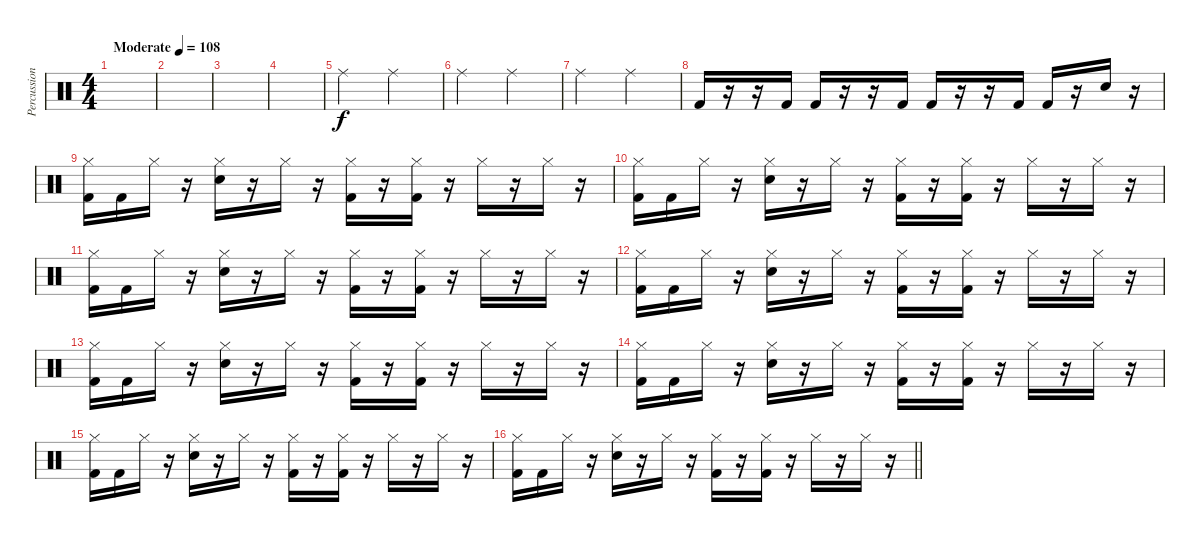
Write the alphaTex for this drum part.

\track ("Percussion" "Percussion") {instrument percussion}
\staff {score}
\articulation defaults
\ts (4 4)
\tempo (108 "Moderate")
\clef neutral
\ks c
|
|
|
|
"Ride (middle)".2 "Ride (middle)".2 |
"Ride (middle)".2 "Ride (middle)".2 |
"Ride (middle)".2 "Ride (middle)".2 |
"Kick (hit) 2".16 r.16 r.16 "Kick (hit) 2".16 "Kick (hit) 2".16 r.16 r.16 "Kick (hit) 2".16 "Kick (hit) 2".16 r.16 r.16 "Kick (hit) 2".16 "Kick (hit) 2".16 r.16 "Snare (hit) 2".16 r.16 |
("Hi-Hat (closed)" "Kick (hit) 2").16 "Kick (hit) 2".16 "Hi-Hat (closed)".16 r.16 ("Hi-Hat (closed)" "Snare (hit) 2").16 r.16 "Hi-Hat (closed)".16 r.16 ("Hi-Hat (closed)" "Kick (hit) 2").16 r.16 ("Hi-Hat (closed)" "Kick (hit) 2").16 r.16 "Hi-Hat (closed)".16 r.16 "Hi-Hat (closed)".16 r.16 |
("Hi-Hat (closed)" "Kick (hit) 2").16 "Kick (hit) 2".16 "Hi-Hat (closed)".16 r.16 ("Hi-Hat (closed)" "Snare (hit) 2").16 r.16 "Hi-Hat (closed)".16 r.16 ("Hi-Hat (closed)" "Kick (hit) 2").16 r.16 ("Hi-Hat (closed)" "Kick (hit) 2").16 r.16 "Hi-Hat (closed)".16 r.16 "Hi-Hat (closed)".16 r.16 |
("Hi-Hat (closed)" "Kick (hit) 2").16 "Kick (hit) 2".16 "Hi-Hat (closed)".16 r.16 ("Hi-Hat (closed)" "Snare (hit) 2").16 r.16 "Hi-Hat (closed)".16 r.16 ("Hi-Hat (closed)" "Kick (hit) 2").16 r.16 ("Hi-Hat (closed)" "Kick (hit) 2").16 r.16 "Hi-Hat (closed)".16 r.16 "Hi-Hat (closed)".16 r.16 |
("Hi-Hat (closed)" "Kick (hit) 2").16 "Kick (hit) 2".16 "Hi-Hat (closed)".16 r.16 ("Hi-Hat (closed)" "Snare (hit) 2").16 r.16 "Hi-Hat (closed)".16 r.16 ("Hi-Hat (closed)" "Kick (hit) 2").16 r.16 ("Hi-Hat (closed)" "Kick (hit) 2").16 r.16 "Hi-Hat (closed)".16 r.16 "Hi-Hat (closed)".16 r.16 |
("Hi-Hat (closed)" "Kick (hit) 2").16 "Kick (hit) 2".16 "Hi-Hat (closed)".16 r.16 ("Hi-Hat (closed)" "Snare (hit) 2").16 r.16 "Hi-Hat (closed)".16 r.16 ("Hi-Hat (closed)" "Kick (hit) 2").16 r.16 ("Hi-Hat (closed)" "Kick (hit) 2").16 r.16 "Hi-Hat (closed)".16 r.16 "Hi-Hat (closed)".16 r.16 |
("Hi-Hat (closed)" "Kick (hit) 2").16 "Kick (hit) 2".16 "Hi-Hat (closed)".16 r.16 ("Hi-Hat (closed)" "Snare (hit) 2").16 r.16 "Hi-Hat (closed)".16 r.16 ("Hi-Hat (closed)" "Kick (hit) 2").16 r.16 ("Hi-Hat (closed)" "Kick (hit) 2").16 r.16 "Hi-Hat (closed)".16 r.16 "Hi-Hat (closed)".16 r.16 |
("Hi-Hat (closed)" "Kick (hit) 2").16 "Kick (hit) 2".16 "Hi-Hat (closed)".16 r.16 ("Hi-Hat (closed)" "Snare (hit) 2").16 r.16 "Hi-Hat (closed)".16 r.16 ("Hi-Hat (closed)" "Kick (hit) 2").16 r.16 ("Hi-Hat (closed)" "Kick (hit) 2").16 r.16 "Hi-Hat (closed)".16 r.16 "Hi-Hat (closed)".16 r.16 |
\barLineRight lightlight
("Hi-Hat (closed)" "Kick (hit) 2").16 "Kick (hit) 2".16 "Hi-Hat (closed)".16 r.16 ("Hi-Hat (closed)" "Snare (hit) 2").16 r.16 "Hi-Hat (closed)".16 r.16 ("Hi-Hat (closed)" "Kick (hit) 2").16 r.16 ("Hi-Hat (closed)" "Kick (hit) 2").16 r.16 "Hi-Hat (closed)".16 r.16 "Hi-Hat (closed)".16 r.16
